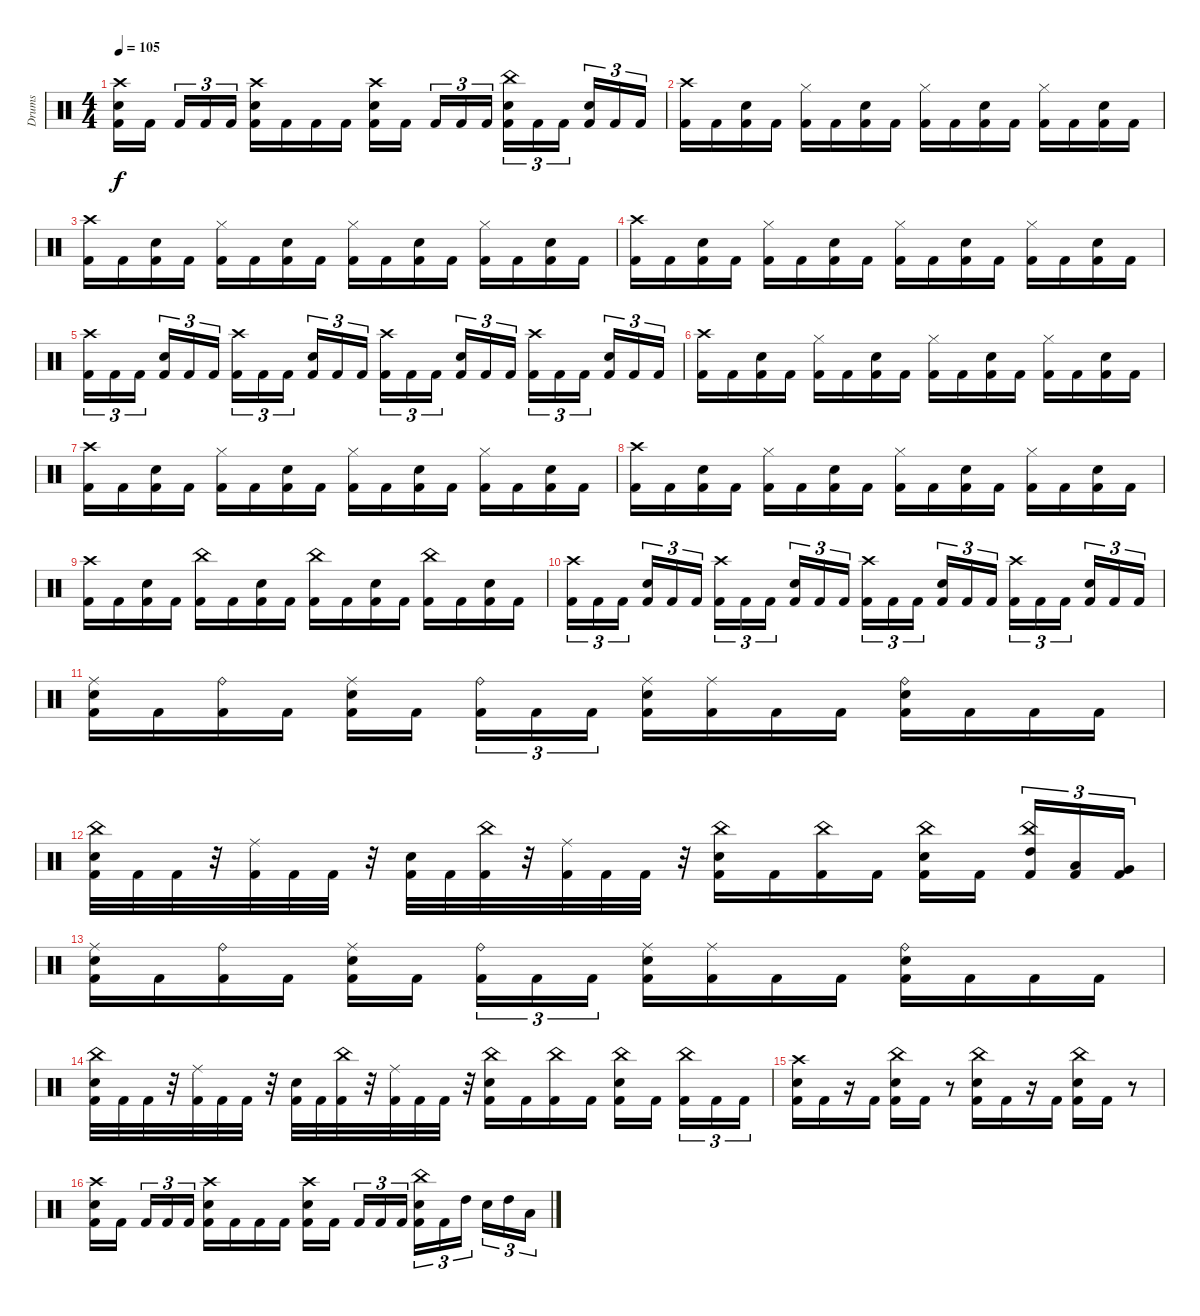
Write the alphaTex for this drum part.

\track ("Drums" "Drums") {instrument percussion}
\staff {score}
\articulation defaults
\ts (4 4)
\tempo 105
\clef neutral
\ks c
("Crash high (hit)" "Snare (hit) 2" "Kick (hit) 2").16{dy f} "Kick (hit) 2".16{beam splitsecondary} "Kick (hit) 2".16{tu (3 2)} "Kick (hit) 2".16{tu (3 2)} "Kick (hit) 2".16{tu (3 2)} ("Crash high (hit)" "Snare (hit) 2" "Kick (hit) 2").16 "Kick (hit) 2".16 "Kick (hit) 2".16 "Kick (hit) 2".16 ("Crash high (hit)" "Snare (hit) 2" "Kick (hit) 2").16 "Kick (hit) 2".16{beam splitsecondary} "Kick (hit) 2".16{tu (3 2)} "Kick (hit) 2".16{tu (3 2)} "Kick (hit) 2".16{tu (3 2)} ("China (hit)" "Snare (hit) 2" "Kick (hit) 2").16{tu (3 2)} "Kick (hit) 2".16{tu (3 2)} "Kick (hit) 2".16{tu (3 2) beam splitsecondary} ("Snare (hit) 2" "Kick (hit) 2").16{tu (3 2)} "Kick (hit) 2".16{tu (3 2)} "Kick (hit) 2".16{tu (3 2)} |
("Crash high (hit)" "Kick (hit) 2").16 "Kick (hit) 2".16 ("Snare (hit) 2" "Kick (hit) 2").16 "Kick (hit) 2".16 ("Hi-Hat (closed)" "Kick (hit) 2").16 "Kick (hit) 2".16 ("Snare (hit) 2" "Kick (hit) 2").16 "Kick (hit) 2".16 ("Hi-Hat (closed)" "Kick (hit) 2").16 "Kick (hit) 2".16 ("Snare (hit) 2" "Kick (hit) 2").16 "Kick (hit) 2".16 ("Hi-Hat (closed)" "Kick (hit) 2").16 "Kick (hit) 2".16 ("Snare (hit) 2" "Kick (hit) 2").16 "Kick (hit) 2".16 |
("Crash high (hit)" "Kick (hit) 2").16 "Kick (hit) 2".16 ("Snare (hit) 2" "Kick (hit) 2").16 "Kick (hit) 2".16 ("Hi-Hat (closed)" "Kick (hit) 2").16 "Kick (hit) 2".16 ("Snare (hit) 2" "Kick (hit) 2").16 "Kick (hit) 2".16 ("Hi-Hat (closed)" "Kick (hit) 2").16 "Kick (hit) 2".16 ("Snare (hit) 2" "Kick (hit) 2").16 "Kick (hit) 2".16 ("Hi-Hat (closed)" "Kick (hit) 2").16 "Kick (hit) 2".16 ("Snare (hit) 2" "Kick (hit) 2").16 "Kick (hit) 2".16 |
("Crash high (hit)" "Kick (hit) 2").16 "Kick (hit) 2".16 ("Snare (hit) 2" "Kick (hit) 2").16 "Kick (hit) 2".16 ("Hi-Hat (closed)" "Kick (hit) 2").16 "Kick (hit) 2".16 ("Snare (hit) 2" "Kick (hit) 2").16 "Kick (hit) 2".16 ("Hi-Hat (closed)" "Kick (hit) 2").16 "Kick (hit) 2".16 ("Snare (hit) 2" "Kick (hit) 2").16 "Kick (hit) 2".16 ("Hi-Hat (closed)" "Kick (hit) 2").16 "Kick (hit) 2".16 ("Snare (hit) 2" "Kick (hit) 2").16 "Kick (hit) 2".16 |
("Crash high (hit)" "Kick (hit) 2").16{tu (3 2)} "Kick (hit) 2".16{tu (3 2)} "Kick (hit) 2".16{tu (3 2) beam splitsecondary} ("Snare (hit) 2" "Kick (hit) 2").16{tu (3 2)} "Kick (hit) 2".16{tu (3 2)} "Kick (hit) 2".16{tu (3 2)} ("Crash high (hit)" "Kick (hit) 2").16{tu (3 2)} "Kick (hit) 2".16{tu (3 2)} "Kick (hit) 2".16{tu (3 2) beam splitsecondary} ("Snare (hit) 2" "Kick (hit) 2").16{tu (3 2)} "Kick (hit) 2".16{tu (3 2)} "Kick (hit) 2".16{tu (3 2)} ("Crash high (hit)" "Kick (hit) 2").16{tu (3 2)} "Kick (hit) 2".16{tu (3 2)} "Kick (hit) 2".16{tu (3 2) beam splitsecondary} ("Snare (hit) 2" "Kick (hit) 2").16{tu (3 2)} "Kick (hit) 2".16{tu (3 2)} "Kick (hit) 2".16{tu (3 2)} ("Crash high (hit)" "Kick (hit) 2").16{tu (3 2)} "Kick (hit) 2".16{tu (3 2)} "Kick (hit) 2".16{tu (3 2) beam splitsecondary} ("Snare (hit) 2" "Kick (hit) 2").16{tu (3 2)} "Kick (hit) 2".16{tu (3 2)} "Kick (hit) 2".16{tu (3 2)} |
("Crash high (hit)" "Kick (hit) 2").16 "Kick (hit) 2".16 ("Snare (hit) 2" "Kick (hit) 2").16 "Kick (hit) 2".16 ("Hi-Hat (closed)" "Kick (hit) 2").16 "Kick (hit) 2".16 ("Snare (hit) 2" "Kick (hit) 2").16 "Kick (hit) 2".16 ("Hi-Hat (closed)" "Kick (hit) 2").16 "Kick (hit) 2".16 ("Snare (hit) 2" "Kick (hit) 2").16 "Kick (hit) 2".16 ("Hi-Hat (closed)" "Kick (hit) 2").16 "Kick (hit) 2".16 ("Snare (hit) 2" "Kick (hit) 2").16 "Kick (hit) 2".16 |
("Crash high (hit)" "Kick (hit) 2").16 "Kick (hit) 2".16 ("Snare (hit) 2" "Kick (hit) 2").16 "Kick (hit) 2".16 ("Hi-Hat (closed)" "Kick (hit) 2").16 "Kick (hit) 2".16 ("Snare (hit) 2" "Kick (hit) 2").16 "Kick (hit) 2".16 ("Hi-Hat (closed)" "Kick (hit) 2").16 "Kick (hit) 2".16 ("Snare (hit) 2" "Kick (hit) 2").16 "Kick (hit) 2".16 ("Hi-Hat (closed)" "Kick (hit) 2").16 "Kick (hit) 2".16 ("Snare (hit) 2" "Kick (hit) 2").16 "Kick (hit) 2".16 |
("Crash high (hit)" "Kick (hit) 2").16 "Kick (hit) 2".16 ("Snare (hit) 2" "Kick (hit) 2").16 "Kick (hit) 2".16 ("Hi-Hat (closed)" "Kick (hit) 2").16 "Kick (hit) 2".16 ("Snare (hit) 2" "Kick (hit) 2").16 "Kick (hit) 2".16 ("Hi-Hat (closed)" "Kick (hit) 2").16 "Kick (hit) 2".16 ("Snare (hit) 2" "Kick (hit) 2").16 "Kick (hit) 2".16 ("Hi-Hat (closed)" "Kick (hit) 2").16 "Kick (hit) 2".16 ("Snare (hit) 2" "Kick (hit) 2").16 "Kick (hit) 2".16 |
("Crash high (hit)" "Kick (hit) 2").16 "Kick (hit) 2".16 ("Snare (hit) 2" "Kick (hit) 2").16 "Kick (hit) 2".16 ("China (hit)" "Kick (hit) 2").16 "Kick (hit) 2".16 ("Snare (hit) 2" "Kick (hit) 2").16 "Kick (hit) 2".16 ("China (hit)" "Kick (hit) 2").16 "Kick (hit) 2".16 ("Snare (hit) 2" "Kick (hit) 2").16 "Kick (hit) 2".16 ("China (hit)" "Kick (hit) 2").16 "Kick (hit) 2".16 ("Snare (hit) 2" "Kick (hit) 2").16 "Kick (hit) 2".16 |
("Crash high (hit)" "Kick (hit) 2").16{tu (3 2)} "Kick (hit) 2".16{tu (3 2)} "Kick (hit) 2".16{tu (3 2) beam splitsecondary} ("Snare (hit) 2" "Kick (hit) 2").16{tu (3 2)} "Kick (hit) 2".16{tu (3 2)} "Kick (hit) 2".16{tu (3 2)} ("Crash high (hit)" "Kick (hit) 2").16{tu (3 2)} "Kick (hit) 2".16{tu (3 2)} "Kick (hit) 2".16{tu (3 2) beam splitsecondary} ("Snare (hit) 2" "Kick (hit) 2").16{tu (3 2)} "Kick (hit) 2".16{tu (3 2)} "Kick (hit) 2".16{tu (3 2)} ("Crash high (hit)" "Kick (hit) 2").16{tu (3 2)} "Kick (hit) 2".16{tu (3 2)} "Kick (hit) 2".16{tu (3 2) beam splitsecondary} ("Snare (hit) 2" "Kick (hit) 2").16{tu (3 2)} "Kick (hit) 2".16{tu (3 2)} "Kick (hit) 2".16{tu (3 2)} ("Crash high (hit)" "Kick (hit) 2").16{tu (3 2)} "Kick (hit) 2".16{tu (3 2)} "Kick (hit) 2".16{tu (3 2) beam splitsecondary} ("Snare (hit) 2" "Kick (hit) 2").16{tu (3 2)} "Kick (hit) 2".16{tu (3 2)} "Kick (hit) 2".16{tu (3 2)} |
("Ride (middle)" "Snare (hit) 2" "Kick (hit) 2").16 "Kick (hit) 2".16 ("Ride (bell)" "Kick (hit) 2").16 "Kick (hit) 2".16 ("Ride (middle)" "Snare (hit) 2" "Kick (hit) 2").16 "Kick (hit) 2".16{beam splitsecondary} ("Ride (bell)" "Kick (hit) 2").16{tu (3 2)} "Kick (hit) 2".16{tu (3 2)} "Kick (hit) 2".16{tu (3 2)} ("Ride (middle)" "Snare (hit) 2" "Kick (hit) 2").16 ("Ride (middle)" "Kick (hit) 2").16 "Kick (hit) 2".16 "Kick (hit) 2".16 ("Ride (bell)" "Snare (hit) 2" "Kick (hit) 2").16 "Kick (hit) 2".16 "Kick (hit) 2".16 "Kick (hit) 2".16 |
("China (hit)" "Snare (hit) 2" "Kick (hit) 2").32 "Kick (hit) 2".32 "Kick (hit) 2".32 r.32 ("Ride (middle)" "Kick (hit) 2").32 "Kick (hit) 2".32 "Kick (hit) 2".32 r.32 ("Snare (hit) 2" "Kick (hit) 2").32 "Kick (hit) 2".32 ("China (hit)" "Kick (hit) 2").32 r.32 ("Ride (middle)" "Kick (hit) 2").32 "Kick (hit) 2".32 "Kick (hit) 2".32 r.32 ("China (hit)" "Snare (hit) 2" "Kick (hit) 2").16 "Kick (hit) 2".16 ("China (hit)" "Kick (hit) 2").16 "Kick (hit) 2".16 ("China (hit)" "Snare (hit) 2" "Kick (hit) 2").16 "Kick (hit) 2".16{beam splitsecondary} ("China (hit)" "High Tom (hit)" "Kick (hit) 2").16{tu (3 2)} ("Low Tom (hit)" "Kick (hit) 2").16{tu (3 2)} ("Very Low Tom (hit)" "Kick (hit) 2").16{tu (3 2)} |
("Ride (middle)" "Snare (hit) 2" "Kick (hit) 2").16 "Kick (hit) 2".16 ("Ride (bell)" "Kick (hit) 2").16 "Kick (hit) 2".16 ("Ride (middle)" "Snare (hit) 2" "Kick (hit) 2").16 "Kick (hit) 2".16{beam splitsecondary} ("Ride (bell)" "Kick (hit) 2").16{tu (3 2)} "Kick (hit) 2".16{tu (3 2)} "Kick (hit) 2".16{tu (3 2)} ("Ride (middle)" "Snare (hit) 2" "Kick (hit) 2").16 ("Ride (middle)" "Kick (hit) 2").16 "Kick (hit) 2".16 "Kick (hit) 2".16 ("Ride (bell)" "Snare (hit) 2" "Kick (hit) 2").16 "Kick (hit) 2".16 "Kick (hit) 2".16 "Kick (hit) 2".16 |
("China (hit)" "Snare (hit) 2" "Kick (hit) 2").32 "Kick (hit) 2".32 "Kick (hit) 2".32 r.32 ("Ride (middle)" "Kick (hit) 2").32 "Kick (hit) 2".32 "Kick (hit) 2".32 r.32 ("Snare (hit) 2" "Kick (hit) 2").32 "Kick (hit) 2".32 ("China (hit)" "Kick (hit) 2").32 r.32 ("Ride (middle)" "Kick (hit) 2").32 "Kick (hit) 2".32 "Kick (hit) 2".32 r.32 ("China (hit)" "Snare (hit) 2" "Kick (hit) 2").16 "Kick (hit) 2".16 ("China (hit)" "Kick (hit) 2").16 "Kick (hit) 2".16 ("China (hit)" "Snare (hit) 2" "Kick (hit) 2").16 "Kick (hit) 2".16{beam splitsecondary} ("China (hit)" "Kick (hit) 2").16{tu (3 2)} "Kick (hit) 2".16{tu (3 2)} "Kick (hit) 2".16{tu (3 2)} |
("Crash high (hit)" "Snare (hit) 2" "Kick (hit) 2").16 "Kick (hit) 2".16 r.16 "Kick (hit) 2".16 ("China (hit)" "Snare (hit) 2" "Kick (hit) 2").16 "Kick (hit) 2".16 r.8 ("China (hit)" "Snare (hit) 2" "Kick (hit) 2").16 "Kick (hit) 2".16 r.16 "Kick (hit) 2".16 ("China (hit)" "Snare (hit) 2" "Kick (hit) 2").16 "Kick (hit) 2".16 r.8 |
("Crash high (hit)" "Snare (hit) 2" "Kick (hit) 2").16 "Kick (hit) 2".16{beam splitsecondary} "Kick (hit) 2".16{tu (3 2)} "Kick (hit) 2".16{tu (3 2)} "Kick (hit) 2".16{tu (3 2)} ("Crash high (hit)" "Snare (hit) 2" "Kick (hit) 2").16 "Kick (hit) 2".16 "Kick (hit) 2".16 "Kick (hit) 2".16 ("Crash high (hit)" "Snare (hit) 2" "Kick (hit) 2").16 "Kick (hit) 2".16{beam splitsecondary} "Kick (hit) 2".16{tu (3 2)} "Kick (hit) 2".16{tu (3 2)} "Kick (hit) 2".16{tu (3 2)} ("China (hit)" "Snare (hit) 2" "Kick (hit) 2").16{tu (3 2)} "Kick (hit) 2".16{tu (3 2)} "High Tom (hit)".16{tu (3 2) beam splitsecondary} "Snare (hit) 2".16{tu (3 2)} "High Tom (hit)".16{tu (3 2)} "Low Tom (hit)".16{tu (3 2)}
